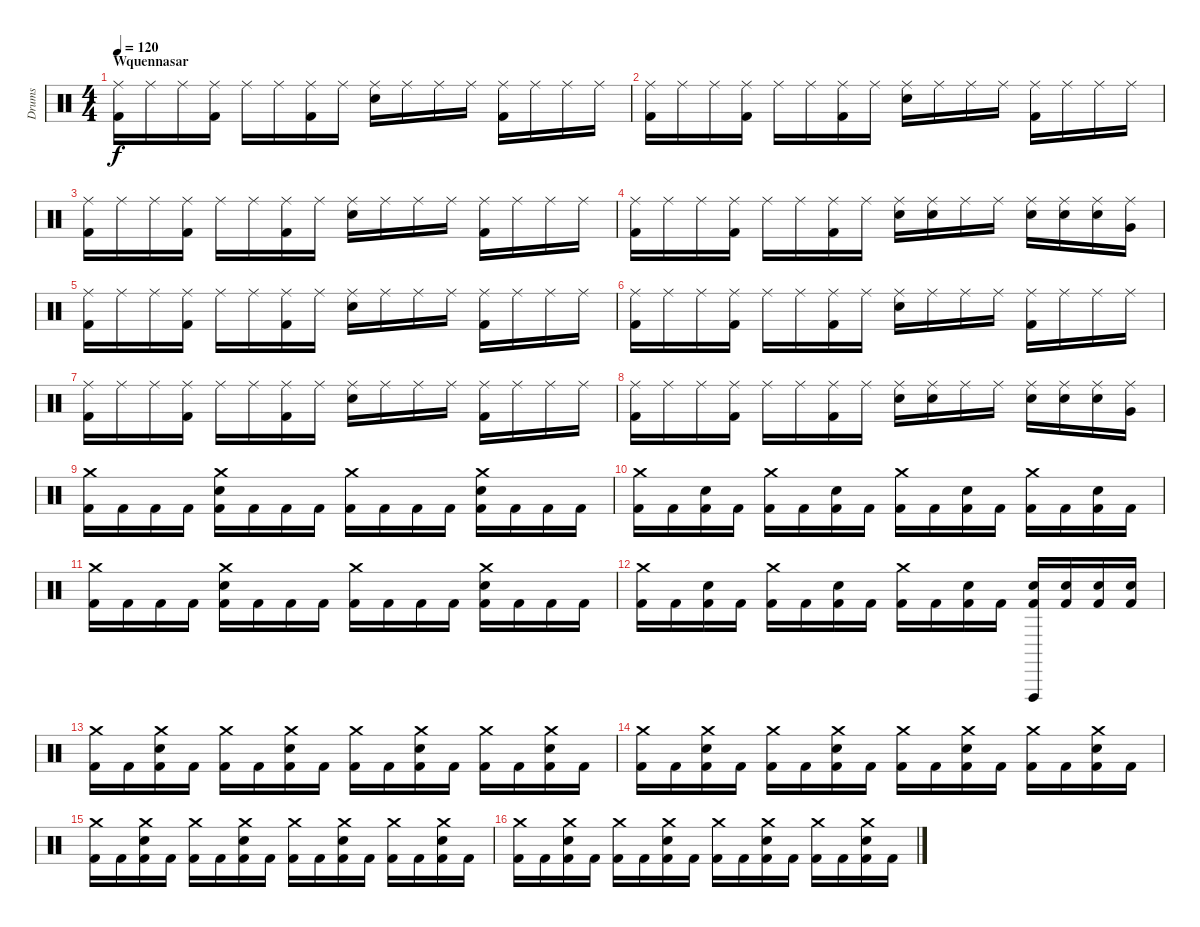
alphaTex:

\track ("Drums" "Drums") {instrument percussion}
\staff {score}
\articulation defaults
\ts (4 4)
\section ("" "Wquennasar")
\tempo 120
\clef neutral
\ks c
("Ride (middle)" "Kick (hit) 2").16{dy f} "Ride (middle)".16 "Ride (middle)".16 ("Ride (middle)" "Kick (hit) 2").16 "Ride (middle)".16 "Ride (middle)".16 ("Ride (middle)" "Kick (hit) 2").16 "Ride (middle)".16 ("Ride (middle)" "Electric Snare (hit)").16 "Ride (middle)".16 "Ride (middle)".16 "Ride (middle)".16 ("Ride (middle)" "Kick (hit) 2").16 "Ride (middle)".16 "Ride (middle)".16 "Ride (middle)".16 |
("Ride (middle)" "Kick (hit) 2").16 "Ride (middle)".16 "Ride (middle)".16 ("Ride (middle)" "Kick (hit) 2").16 "Ride (middle)".16 "Ride (middle)".16 ("Ride (middle)" "Kick (hit) 2").16 "Ride (middle)".16 ("Ride (middle)" "Electric Snare (hit)").16 "Ride (middle)".16 "Ride (middle)".16 "Ride (middle)".16 ("Ride (middle)" "Kick (hit) 2").16 "Ride (middle)".16 "Ride (middle)".16 "Ride (middle)".16 |
("Ride (middle)" "Kick (hit) 2").16 "Ride (middle)".16 "Ride (middle)".16 ("Ride (middle)" "Kick (hit) 2").16 "Ride (middle)".16 "Ride (middle)".16 ("Ride (middle)" "Kick (hit) 2").16 "Ride (middle)".16 ("Ride (middle)" "Electric Snare (hit)").16 "Ride (middle)".16 "Ride (middle)".16 "Ride (middle)".16 ("Ride (middle)" "Kick (hit) 2").16 "Ride (middle)".16 "Ride (middle)".16 "Ride (middle)".16 |
("Ride (middle)" "Kick (hit) 2").16 "Ride (middle)".16 "Ride (middle)".16 ("Ride (middle)" "Kick (hit) 2").16 "Ride (middle)".16 "Ride (middle)".16 ("Ride (middle)" "Kick (hit) 2").16 "Ride (middle)".16 ("Ride (middle)" "Electric Snare (hit)").16 ("Ride (middle)" "Electric Snare (hit)").16 "Ride (middle)".16 "Ride (middle)".16 ("Ride (middle)" "Electric Snare (hit)").16 ("Ride (middle)" "Electric Snare (hit)").16 ("Ride (middle)" "Electric Snare (hit)").16 ("Ride (middle)" "Very Low Tom (hit)").16 |
("Ride (middle)" "Kick (hit) 2").16 "Ride (middle)".16 "Ride (middle)".16 ("Ride (middle)" "Kick (hit) 2").16 "Ride (middle)".16 "Ride (middle)".16 ("Ride (middle)" "Kick (hit) 2").16 "Ride (middle)".16 ("Ride (middle)" "Electric Snare (hit)").16 "Ride (middle)".16 "Ride (middle)".16 "Ride (middle)".16 ("Ride (middle)" "Kick (hit) 2").16 "Ride (middle)".16 "Ride (middle)".16 "Ride (middle)".16 |
("Ride (middle)" "Kick (hit) 2").16 "Ride (middle)".16 "Ride (middle)".16 ("Ride (middle)" "Kick (hit) 2").16 "Ride (middle)".16 "Ride (middle)".16 ("Ride (middle)" "Kick (hit) 2").16 "Ride (middle)".16 ("Ride (middle)" "Electric Snare (hit)").16 "Ride (middle)".16 "Ride (middle)".16 "Ride (middle)".16 ("Ride (middle)" "Kick (hit) 2").16 "Ride (middle)".16 "Ride (middle)".16 "Ride (middle)".16 |
("Ride (middle)" "Kick (hit) 2").16 "Ride (middle)".16 "Ride (middle)".16 ("Ride (middle)" "Kick (hit) 2").16 "Ride (middle)".16 "Ride (middle)".16 ("Ride (middle)" "Kick (hit) 2").16 "Ride (middle)".16 ("Ride (middle)" "Electric Snare (hit)").16 "Ride (middle)".16 "Ride (middle)".16 "Ride (middle)".16 ("Ride (middle)" "Kick (hit) 2").16 "Ride (middle)".16 "Ride (middle)".16 "Ride (middle)".16 |
("Ride (middle)" "Kick (hit) 2").16 "Ride (middle)".16 "Ride (middle)".16 ("Ride (middle)" "Kick (hit) 2").16 "Ride (middle)".16 "Ride (middle)".16 ("Ride (middle)" "Kick (hit) 2").16 "Ride (middle)".16 ("Ride (middle)" "Electric Snare (hit)").16 ("Ride (middle)" "Electric Snare (hit)").16 "Ride (middle)".16 "Ride (middle)".16 ("Ride (middle)" "Electric Snare (hit)").16 ("Ride (middle)" "Electric Snare (hit)").16 ("Ride (middle)" "Electric Snare (hit)").16 ("Ride (middle)" "Very Low Tom (hit)").16 |
("Crash medium (hit)" "Kick (hit) 2").16 "Kick (hit) 2".16 "Kick (hit) 2".16 "Kick (hit) 2".16 ("Crash medium (hit)" "Electric Snare (hit)" "Kick (hit) 2").16 "Kick (hit) 2".16 "Kick (hit) 2".16 "Kick (hit) 2".16 ("Crash medium (hit)" "Kick (hit) 2").16 "Kick (hit) 2".16 "Kick (hit) 2".16 "Kick (hit) 2".16 ("Crash medium (hit)" "Electric Snare (hit)" "Kick (hit) 2").16 "Kick (hit) 2".16 "Kick (hit) 2".16 "Kick (hit) 2".16 |
("Crash medium (hit)" "Kick (hit) 2").16 "Kick (hit) 2".16 ("Electric Snare (hit)" "Kick (hit) 2").16 "Kick (hit) 2".16 ("Crash medium (hit)" "Kick (hit) 2").16 "Kick (hit) 2".16 ("Electric Snare (hit)" "Kick (hit) 2").16 "Kick (hit) 2".16 ("Crash medium (hit)" "Kick (hit) 2").16 "Kick (hit) 2".16 ("Electric Snare (hit)" "Kick (hit) 2").16 "Kick (hit) 2".16 ("Crash medium (hit)" "Kick (hit) 2").16 "Kick (hit) 2".16 ("Electric Snare (hit)" "Kick (hit) 2").16 "Kick (hit) 2".16 |
("Crash medium (hit)" "Kick (hit) 2").16 "Kick (hit) 2".16 "Kick (hit) 2".16 "Kick (hit) 2".16 ("Crash medium (hit)" "Electric Snare (hit)" "Kick (hit) 2").16 "Kick (hit) 2".16 "Kick (hit) 2".16 "Kick (hit) 2".16 ("Crash medium (hit)" "Kick (hit) 2").16 "Kick (hit) 2".16 "Kick (hit) 2".16 "Kick (hit) 2".16 ("Crash medium (hit)" "Electric Snare (hit)" "Kick (hit) 2").16 "Kick (hit) 2".16 "Kick (hit) 2".16 "Kick (hit) 2".16 |
("Crash medium (hit)" "Kick (hit) 2").16 "Kick (hit) 2".16 ("Electric Snare (hit)" "Kick (hit) 2").16 "Kick (hit) 2".16 ("Crash medium (hit)" "Kick (hit) 2").16 "Kick (hit) 2".16 ("Electric Snare (hit)" "Kick (hit) 2").16 "Kick (hit) 2".16 ("Crash medium (hit)" "Kick (hit) 2").16 "Kick (hit) 2".16 ("Electric Snare (hit)" "Kick (hit) 2").16 "Kick (hit) 2".16 ("Vibraslap (hit)" "Electric Snare (hit)" "Kick (hit) 2").16 ("Electric Snare (hit)" "Kick (hit) 2").16 ("Electric Snare (hit)" "Kick (hit) 2").16 ("Electric Snare (hit)" "Kick (hit) 2").16 |
("Crash medium (hit)" "Kick (hit) 2").16 "Kick (hit) 2".16 ("Crash medium (hit)" "Electric Snare (hit)" "Kick (hit) 2").16 "Kick (hit) 2".16 ("Crash medium (hit)" "Kick (hit) 2").16 "Kick (hit) 2".16 ("Crash medium (hit)" "Electric Snare (hit)" "Kick (hit) 2").16 "Kick (hit) 2".16 ("Crash medium (hit)" "Kick (hit) 2").16 "Kick (hit) 2".16 ("Crash medium (hit)" "Electric Snare (hit)" "Kick (hit) 2").16 "Kick (hit) 2".16 ("Crash medium (hit)" "Kick (hit) 2").16 "Kick (hit) 2".16 ("Crash medium (hit)" "Electric Snare (hit)" "Kick (hit) 2").16 "Kick (hit) 2".16 |
("Crash medium (hit)" "Kick (hit) 2").16 "Kick (hit) 2".16 ("Crash medium (hit)" "Electric Snare (hit)" "Kick (hit) 2").16 "Kick (hit) 2".16 ("Crash medium (hit)" "Kick (hit) 2").16 "Kick (hit) 2".16 ("Crash medium (hit)" "Electric Snare (hit)" "Kick (hit) 2").16 "Kick (hit) 2".16 ("Crash medium (hit)" "Kick (hit) 2").16 "Kick (hit) 2".16 ("Crash medium (hit)" "Electric Snare (hit)" "Kick (hit) 2").16 "Kick (hit) 2".16 ("Crash medium (hit)" "Kick (hit) 2").16 "Kick (hit) 2".16 ("Crash medium (hit)" "Electric Snare (hit)" "Kick (hit) 2").16 "Kick (hit) 2".16 |
("Crash medium (hit)" "Kick (hit) 2").16 "Kick (hit) 2".16 ("Crash medium (hit)" "Electric Snare (hit)" "Kick (hit) 2").16 "Kick (hit) 2".16 ("Crash medium (hit)" "Kick (hit) 2").16 "Kick (hit) 2".16 ("Crash medium (hit)" "Electric Snare (hit)" "Kick (hit) 2").16 "Kick (hit) 2".16 ("Crash medium (hit)" "Kick (hit) 2").16 "Kick (hit) 2".16 ("Crash medium (hit)" "Electric Snare (hit)" "Kick (hit) 2").16 "Kick (hit) 2".16 ("Crash medium (hit)" "Kick (hit) 2").16 "Kick (hit) 2".16 ("Crash medium (hit)" "Electric Snare (hit)" "Kick (hit) 2").16 "Kick (hit) 2".16 |
("Crash medium (hit)" "Kick (hit) 2").16 "Kick (hit) 2".16 ("Crash medium (hit)" "Electric Snare (hit)" "Kick (hit) 2").16 "Kick (hit) 2".16 ("Crash medium (hit)" "Kick (hit) 2").16 "Kick (hit) 2".16 ("Crash medium (hit)" "Electric Snare (hit)" "Kick (hit) 2").16 "Kick (hit) 2".16 ("Crash medium (hit)" "Kick (hit) 2").16 "Kick (hit) 2".16 ("Crash medium (hit)" "Electric Snare (hit)" "Kick (hit) 2").16 "Kick (hit) 2".16 ("Crash medium (hit)" "Kick (hit) 2").16 "Kick (hit) 2".16 ("Crash medium (hit)" "Electric Snare (hit)" "Kick (hit) 2").16 "Kick (hit) 2".16
